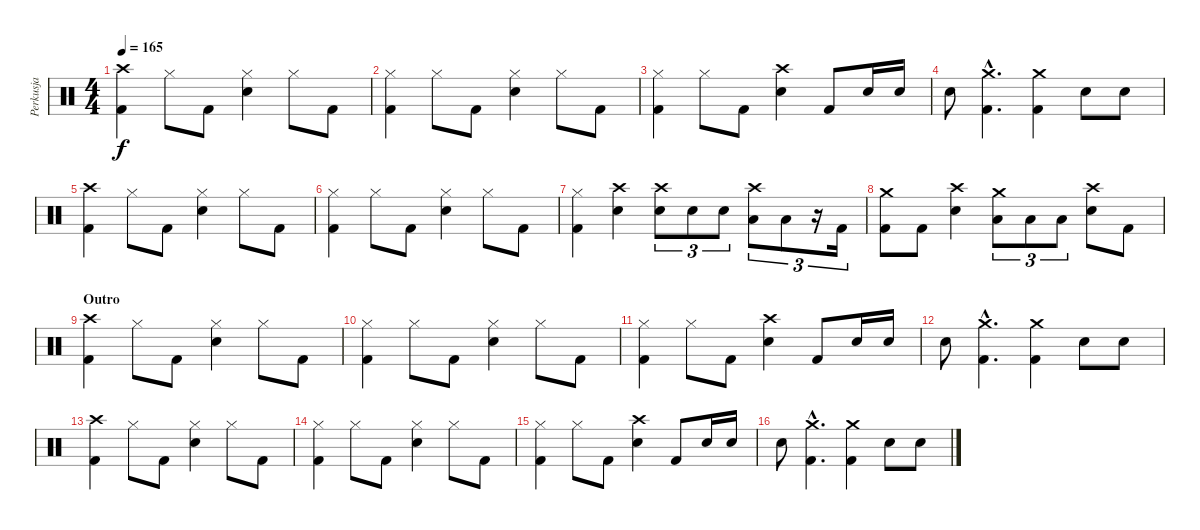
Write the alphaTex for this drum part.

\track ("Perkusja" "Perkusja") {instrument percussion}
\staff {score}
\articulation defaults
\ts (4 4)
\tempo 165
\clef neutral
\ks c
("Crash high (hit)" "Kick (hit) 2").4{dy f} "Hi-Hat (closed)".8 "Kick (hit) 2".8 ("Hi-Hat (closed)" "Snare (hit) 2").4 "Hi-Hat (closed)".8 "Kick (hit) 2".8 |
("Hi-Hat (closed)" "Kick (hit) 2").4 "Hi-Hat (closed)".8 "Kick (hit) 2".8 ("Hi-Hat (closed)" "Snare (hit) 2").4 "Hi-Hat (closed)".8 "Kick (hit) 2".8 |
("Hi-Hat (closed)" "Kick (hit) 2").4 "Hi-Hat (closed)".8 "Kick (hit) 2".8 ("Crash high (hit)" "Snare (hit) 2").4 "Kick (hit) 2".8 "Snare (hit) 2".16 "Snare (hit) 2".16 |
"Snare (hit) 2".8 ("Crash medium (hit)"{hac} "Kick (hit) 2"{hac}).4{d} ("Crash medium (hit)" "Kick (hit) 2").4 "Snare (hit) 2".8 "Snare (hit) 2".8 |
("Crash high (hit)" "Kick (hit) 2").4 "Hi-Hat (closed)".8 "Kick (hit) 2".8 ("Hi-Hat (closed)" "Snare (hit) 2").4 "Hi-Hat (closed)".8 "Kick (hit) 2".8 |
("Hi-Hat (closed)" "Kick (hit) 2").4 "Hi-Hat (closed)".8 "Kick (hit) 2".8 ("Hi-Hat (closed)" "Snare (hit) 2").4 "Hi-Hat (closed)".8 "Kick (hit) 2".8 |
("Hi-Hat (closed)" "Kick (hit) 2").4 ("Crash high (hit)" "Snare (hit) 2").4 ("Crash high (hit)" "Snare (hit) 2").8{tu (3 2)} "Snare (hit) 2".8{tu (3 2)} "Snare (hit) 2".8{tu (3 2)} ("Crash high (hit)" "Low Tom (hit)").8{tu (3 2)} "Low Tom (hit)".8{tu (3 2)} r.16{tu (3 2)} "Kick (hit) 2".16{tu (3 2)} |
("Crash medium (hit)" "Kick (hit) 2").8 "Kick (hit) 2".8 ("Crash high (hit)" "Snare (hit) 2").4 ("Crash medium (hit)" "Low Tom (hit)").8{tu (3 2)} "Low Tom (hit)".8{tu (3 2)} "Low Tom (hit)".8{tu (3 2)} ("Crash high (hit)" "Snare (hit) 2").8 "Kick (hit) 2".8 |
\section ("" "Outro")
("Crash high (hit)" "Kick (hit) 2").4 "Hi-Hat (closed)".8 "Kick (hit) 2".8 ("Hi-Hat (closed)" "Snare (hit) 2").4 "Hi-Hat (closed)".8 "Kick (hit) 2".8 |
("Hi-Hat (closed)" "Kick (hit) 2").4 "Hi-Hat (closed)".8 "Kick (hit) 2".8 ("Hi-Hat (closed)" "Snare (hit) 2").4 "Hi-Hat (closed)".8 "Kick (hit) 2".8 |
("Hi-Hat (closed)" "Kick (hit) 2").4 "Hi-Hat (closed)".8 "Kick (hit) 2".8 ("Crash high (hit)" "Snare (hit) 2").4 "Kick (hit) 2".8 "Snare (hit) 2".16 "Snare (hit) 2".16 |
"Snare (hit) 2".8 ("Crash medium (hit)"{hac} "Kick (hit) 2"{hac}).4{d} ("Crash medium (hit)" "Kick (hit) 2").4 "Snare (hit) 2".8 "Snare (hit) 2".8 |
("Crash high (hit)" "Kick (hit) 2").4 "Hi-Hat (closed)".8 "Kick (hit) 2".8 ("Hi-Hat (closed)" "Snare (hit) 2").4 "Hi-Hat (closed)".8 "Kick (hit) 2".8 |
("Hi-Hat (closed)" "Kick (hit) 2").4 "Hi-Hat (closed)".8 "Kick (hit) 2".8 ("Hi-Hat (closed)" "Snare (hit) 2").4 "Hi-Hat (closed)".8 "Kick (hit) 2".8 |
("Hi-Hat (closed)" "Kick (hit) 2").4 "Hi-Hat (closed)".8 "Kick (hit) 2".8 ("Crash high (hit)" "Snare (hit) 2").4 "Kick (hit) 2".8 "Snare (hit) 2".16 "Snare (hit) 2".16 |
"Snare (hit) 2".8 ("Crash medium (hit)"{hac} "Kick (hit) 2"{hac}).4{d} ("Crash medium (hit)" "Kick (hit) 2").4 "Snare (hit) 2".8 "Snare (hit) 2".8
